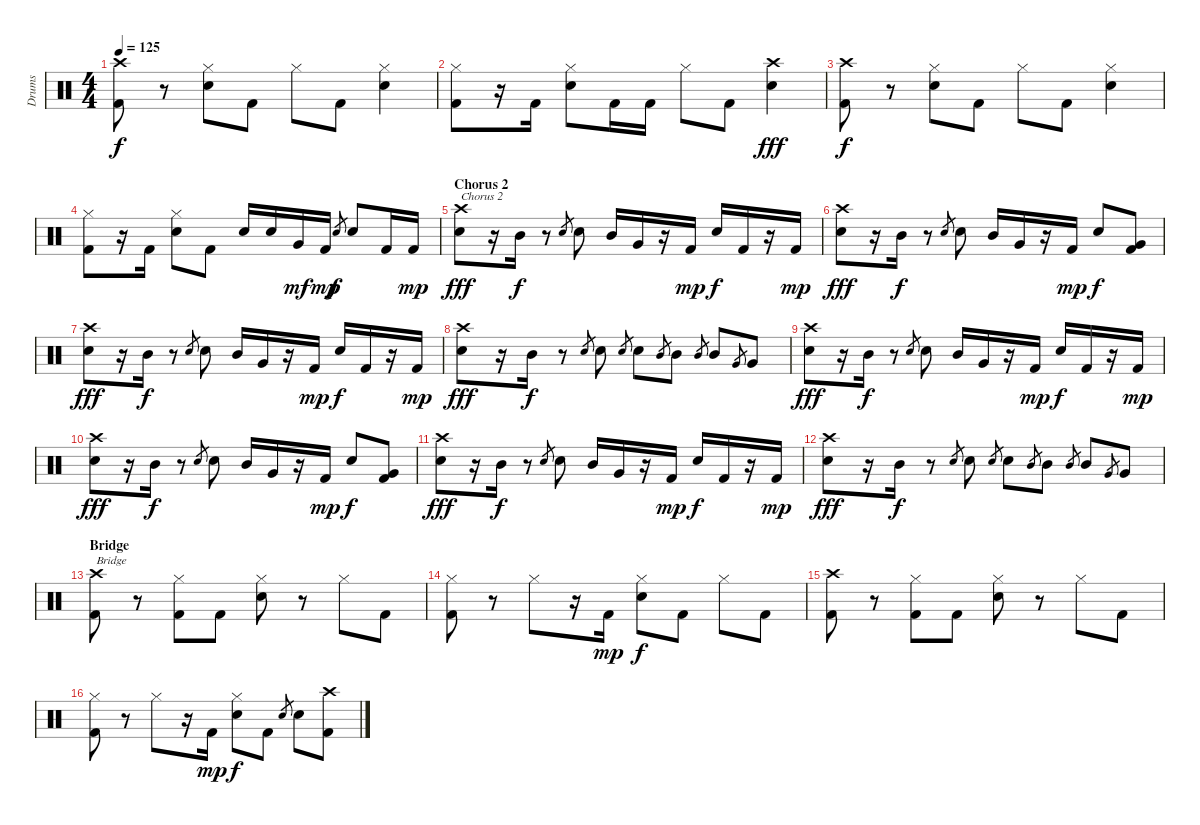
\track ("Drums" "Drums") {instrument percussion}
\staff {score}
\articulation defaults
\ts (4 4)
\tempo 125
\clef neutral
\ks c
("Crash high (hit)" "Kick (hit) 2").8{dy f} r.8 ("Hi-Hat (closed)" "Electric Snare (hit)").8 "Kick (hit) 2".8 "Hi-Hat (closed)".8 "Kick (hit) 2".8 ("Hi-Hat (closed)" "Electric Snare (hit)").4 |
("Hi-Hat (closed)" "Kick (hit) 2").8 r.16 "Kick (hit) 2".16 ("Hi-Hat (closed)" "Electric Snare (hit)").8 "Kick (hit) 2".16 "Kick (hit) 2".16 "Hi-Hat (closed)".8 "Kick (hit) 2".8 ("Crash high (hit)" "Electric Snare (hit)").4{dy fff} |
("Crash high (hit)" "Kick (hit) 2").8{dy f} r.8 ("Hi-Hat (closed)" "Electric Snare (hit)").8 "Kick (hit) 2".8 "Hi-Hat (closed)".8 "Kick (hit) 2".8 ("Hi-Hat (closed)" "Electric Snare (hit)").4 |
("Hi-Hat (closed)" "Kick (hit) 2").8 r.16 "Kick (hit) 2".16 ("Hi-Hat (closed)" "Electric Snare (hit)").8 "Kick (hit) 2".8 "Electric Snare (hit)".16 "Electric Snare (hit)".16 "Very Low Tom (hit)".16{dy mf} "Kick (hit) 2".16{dy mp} "Electric Snare (hit)".8{gr dy f} "Electric Snare (hit)".8 "Kick (hit) 2".16 "Kick (hit) 2".16{dy mp} |
\section ("" "Chorus 2")
("Crash high (hit)" "Electric Snare (hit)").8{txt "Chorus 2" dy fff} r.16 "Mid Tom (hit)".16{dy f} r.8 "Electric Snare (hit)".8{gr} "Electric Snare (hit)".8 "Mid Tom (hit)".16 "Very Low Tom (hit)".16 r.16 "Kick (hit) 2".16{dy mp} "Electric Snare (hit)".16{dy f} "Kick (hit) 2".16 r.16 "Kick (hit) 2".16{dy mp} |
("Crash high (hit)" "Electric Snare (hit)").8{dy fff} r.16 "Mid Tom (hit)".16{dy f} r.8 "Electric Snare (hit)".8{gr} "Electric Snare (hit)".8 "Mid Tom (hit)".16 "Very Low Tom (hit)".16 r.16 "Kick (hit) 2".16{dy mp} "Electric Snare (hit)".8{dy f} ("Very Low Tom (hit)" "Kick (hit) 2").8 |
("Crash high (hit)" "Electric Snare (hit)").8{dy fff} r.16 "Mid Tom (hit)".16{dy f} r.8 "Electric Snare (hit)".8{gr} "Electric Snare (hit)".8 "Mid Tom (hit)".16 "Very Low Tom (hit)".16 r.16 "Kick (hit) 2".16{dy mp} "Electric Snare (hit)".16{dy f} "Kick (hit) 2".16 r.16 "Kick (hit) 2".16{dy mp} |
("Crash high (hit)" "Electric Snare (hit)").8{dy fff} r.16 "Mid Tom (hit)".16{dy f} r.8 "Electric Snare (hit)".8{gr} "Electric Snare (hit)".8 "Electric Snare (hit)".8{gr} "Electric Snare (hit)".8 "Mid Tom (hit)".8{gr} "Mid Tom (hit)".8 "Mid Tom (hit)".8{gr} "Mid Tom (hit)".8 "Very Low Tom (hit)".8{gr} "Very Low Tom (hit)".8 |
("Crash high (hit)" "Electric Snare (hit)").8{dy fff} r.16 "Mid Tom (hit)".16{dy f} r.8 "Electric Snare (hit)".8{gr} "Electric Snare (hit)".8 "Mid Tom (hit)".16 "Very Low Tom (hit)".16 r.16 "Kick (hit) 2".16{dy mp} "Electric Snare (hit)".16{dy f} "Kick (hit) 2".16 r.16 "Kick (hit) 2".16{dy mp} |
("Crash high (hit)" "Electric Snare (hit)").8{dy fff} r.16 "Mid Tom (hit)".16{dy f} r.8 "Electric Snare (hit)".8{gr} "Electric Snare (hit)".8 "Mid Tom (hit)".16 "Very Low Tom (hit)".16 r.16 "Kick (hit) 2".16{dy mp} "Electric Snare (hit)".8{dy f} ("Very Low Tom (hit)" "Kick (hit) 2").8 |
("Crash high (hit)" "Electric Snare (hit)").8{dy fff} r.16 "Mid Tom (hit)".16{dy f} r.8 "Electric Snare (hit)".8{gr} "Electric Snare (hit)".8 "Mid Tom (hit)".16 "Very Low Tom (hit)".16 r.16 "Kick (hit) 2".16{dy mp} "Electric Snare (hit)".16{dy f} "Kick (hit) 2".16 r.16 "Kick (hit) 2".16{dy mp} |
("Crash high (hit)" "Electric Snare (hit)").8{dy fff} r.16 "Mid Tom (hit)".16{dy f} r.8 "Electric Snare (hit)".8{gr} "Electric Snare (hit)".8 "Electric Snare (hit)".8{gr} "Electric Snare (hit)".8 "Mid Tom (hit)".8{gr} "Mid Tom (hit)".8 "Mid Tom (hit)".8{gr} "Mid Tom (hit)".8 "Very Low Tom (hit)".8{gr} "Very Low Tom (hit)".8 |
\section ("" "Bridge")
("Crash high (hit)" "Kick (hit) 2").8{txt "Bridge"} r.8 ("Hi-Hat (closed)" "Kick (hit) 2").8 "Kick (hit) 2".8 ("Hi-Hat (closed)" "Electric Snare (hit)").8 r.8 "Hi-Hat (closed)".8 "Kick (hit) 2".8 |
("Hi-Hat (closed)" "Kick (hit) 2").8 r.8 "Hi-Hat (closed)".8 r.16 "Kick (hit) 2".16{dy mp} ("Hi-Hat (closed)" "Electric Snare (hit)").8{dy f} "Kick (hit) 2".8 "Hi-Hat (closed)".8 "Kick (hit) 2".8 |
("Crash high (hit)" "Kick (hit) 2").8 r.8 ("Hi-Hat (closed)" "Kick (hit) 2").8 "Kick (hit) 2".8 ("Hi-Hat (closed)" "Electric Snare (hit)").8 r.8 "Hi-Hat (closed)".8 "Kick (hit) 2".8 |
("Hi-Hat (closed)" "Kick (hit) 2").8 r.8 "Hi-Hat (closed)".8 r.16 "Kick (hit) 2".16{dy mp} ("Hi-Hat (closed)" "Electric Snare (hit)").8{dy f} "Kick (hit) 2".8 "Electric Snare (hit)".8{gr} "Electric Snare (hit)".8 ("Crash high (hit)" "Kick (hit) 2").8
